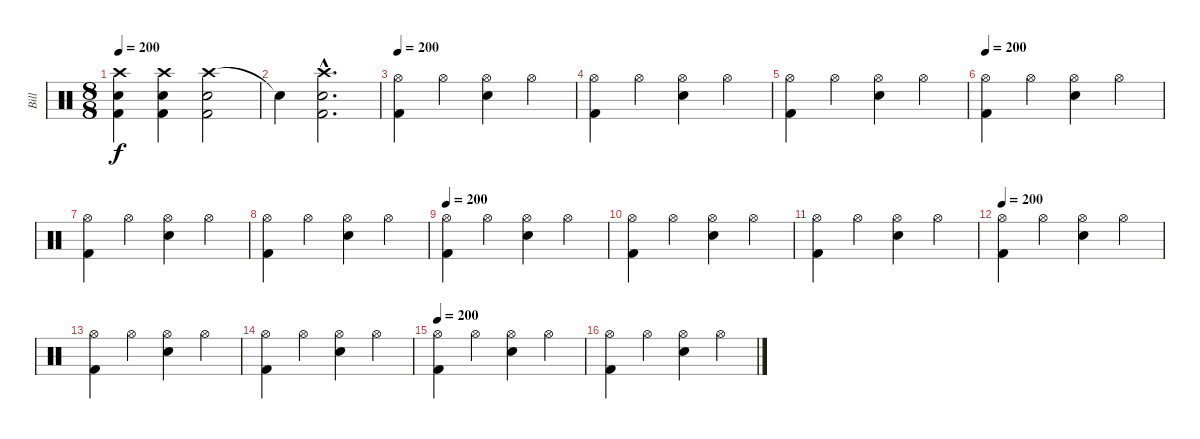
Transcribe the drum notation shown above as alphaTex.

\track ("Bill" "Bill") {instrument percussion}
\staff {score}
\articulation defaults
\ts (8 8)
\tempo 200
\clef neutral
\ks c
("Crash high (hit)" "Snare (hit) 2" "Kick (hit) 2").4{dy f} ("Crash high (hit)" "Snare (hit) 2" "Kick (hit) 2").4 ("Crash high (hit)" "Snare (hit) 2" "Kick (hit) 2").2 |
"Snare (hit)"{t}.4 ("Crash high (hit)"{hac} "Snare (hit) 2"{hac} "Kick (hit) 2"{hac}).2{d} |
\tempo 200
("Hi-Hat (open)" "Kick (hit) 2").4 "Hi-Hat (open)".4 ("Hi-Hat (open)" "Snare (hit) 2").4 "Hi-Hat (open)".4 |
("Hi-Hat (open)" "Kick (hit) 2").4 "Hi-Hat (open)".4 ("Hi-Hat (open)" "Snare (hit) 2").4 "Hi-Hat (open)".4 |
("Hi-Hat (open)" "Kick (hit) 2").4 "Hi-Hat (open)".4 ("Hi-Hat (open)" "Snare (hit) 2").4 "Hi-Hat (open)".4 |
\tempo 200
("Hi-Hat (open)" "Kick (hit) 2").4 "Hi-Hat (open)".4 ("Hi-Hat (open)" "Snare (hit) 2").4 "Hi-Hat (open)".4 |
("Hi-Hat (open)" "Kick (hit) 2").4 "Hi-Hat (open)".4 ("Hi-Hat (open)" "Snare (hit) 2").4 "Hi-Hat (open)".4 |
("Hi-Hat (open)" "Kick (hit) 2").4 "Hi-Hat (open)".4 ("Hi-Hat (open)" "Snare (hit) 2").4 "Hi-Hat (open)".4 |
\tempo 200
("Hi-Hat (open)" "Kick (hit) 2").4 "Hi-Hat (open)".4 ("Hi-Hat (open)" "Snare (hit) 2").4 "Hi-Hat (open)".4 |
("Hi-Hat (open)" "Kick (hit) 2").4 "Hi-Hat (open)".4 ("Hi-Hat (open)" "Snare (hit) 2").4 "Hi-Hat (open)".4 |
("Hi-Hat (open)" "Kick (hit) 2").4 "Hi-Hat (open)".4 ("Hi-Hat (open)" "Snare (hit) 2").4 "Hi-Hat (open)".4 |
\tempo 200
("Hi-Hat (open)" "Kick (hit) 2").4 "Hi-Hat (open)".4 ("Hi-Hat (open)" "Snare (hit) 2").4 "Hi-Hat (open)".4 |
("Hi-Hat (open)" "Kick (hit) 2").4 "Hi-Hat (open)".4 ("Hi-Hat (open)" "Snare (hit) 2").4 "Hi-Hat (open)".4 |
("Hi-Hat (open)" "Kick (hit) 2").4 "Hi-Hat (open)".4 ("Hi-Hat (open)" "Snare (hit) 2").4 "Hi-Hat (open)".4 |
\tempo 200
("Hi-Hat (open)" "Kick (hit) 2").4 "Hi-Hat (open)".4 ("Hi-Hat (open)" "Snare (hit) 2").4 "Hi-Hat (open)".4 |
("Hi-Hat (open)" "Kick (hit) 2").4 "Hi-Hat (open)".4 ("Hi-Hat (open)" "Snare (hit) 2").4 "Hi-Hat (open)".4
